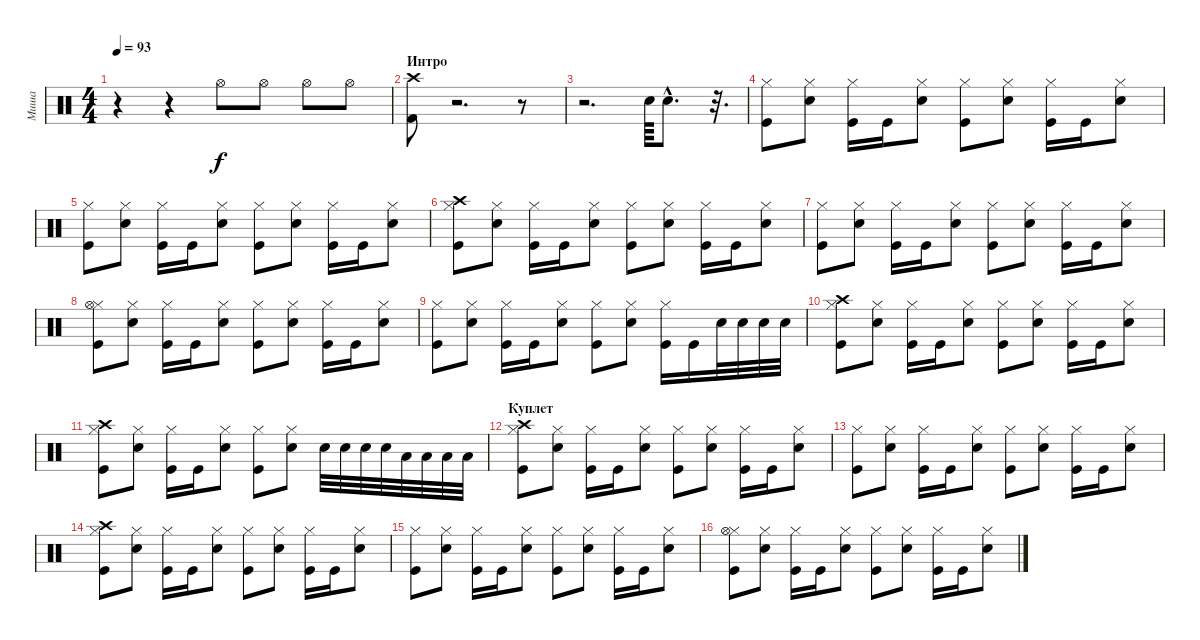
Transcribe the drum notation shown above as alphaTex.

\track ("Миша" "Миша") {instrument percussion}
\staff {score}
\articulation defaults
\ts (4 4)
\tempo 93
\clef neutral
\ks c
r.4{dy f} r.4 "Hi-Hat (open)".8 "Hi-Hat (open)".8 "Hi-Hat (open)".8 "Hi-Hat (open)".8 |
\section ("" "Интро")
("Kick (hit) 2" "Crash high (hit)").8 r.2{d} r.8 |
r.2{d} "Electric Snare (hit)".64 "Electric Snare (hit)"{hac}.8{d} r.32{d} |
("Kick (hit)" "Hi-Hat (closed)").8 ("Electric Snare (hit)" "Hi-Hat (closed)").8 ("Kick (hit)" "Hi-Hat (closed)").16 "Kick (hit)".16 ("Electric Snare (hit)" "Hi-Hat (closed)").8 ("Kick (hit)" "Hi-Hat (closed)").8 ("Electric Snare (hit)" "Hi-Hat (closed)").8 ("Kick (hit)" "Hi-Hat (closed)").16 "Kick (hit)".16 ("Electric Snare (hit)" "Hi-Hat (closed)").8 |
("Kick (hit)" "Hi-Hat (closed)").8 ("Electric Snare (hit)" "Hi-Hat (closed)").8 ("Kick (hit)" "Hi-Hat (closed)").16 "Kick (hit)".16 ("Electric Snare (hit)" "Hi-Hat (closed)").8 ("Kick (hit)" "Hi-Hat (closed)").8 ("Electric Snare (hit)" "Hi-Hat (closed)").8 ("Kick (hit)" "Hi-Hat (closed)").16 "Kick (hit)".16 ("Electric Snare (hit)" "Hi-Hat (closed)").8 |
("Kick (hit)" "Hi-Hat (closed)" "Crash high (hit)").8 ("Electric Snare (hit)" "Hi-Hat (closed)").8 ("Kick (hit)" "Hi-Hat (closed)").16 "Kick (hit)".16 ("Electric Snare (hit)" "Hi-Hat (closed)").8 ("Kick (hit)" "Hi-Hat (closed)").8 ("Electric Snare (hit)" "Hi-Hat (closed)").8 ("Kick (hit)" "Hi-Hat (closed)").16 "Kick (hit)".16 ("Electric Snare (hit)" "Hi-Hat (closed)").8 |
("Kick (hit)" "Hi-Hat (closed)").8 ("Electric Snare (hit)" "Hi-Hat (closed)").8 ("Kick (hit)" "Hi-Hat (closed)").16 "Kick (hit)".16 ("Electric Snare (hit)" "Hi-Hat (closed)").8 ("Kick (hit)" "Hi-Hat (closed)").8 ("Electric Snare (hit)" "Hi-Hat (closed)").8 ("Kick (hit)" "Hi-Hat (closed)").16 "Kick (hit)".16 ("Electric Snare (hit)" "Hi-Hat (closed)").8 |
("Kick (hit)" "Hi-Hat (closed)" "Hi-Hat (open)").8 ("Electric Snare (hit)" "Hi-Hat (closed)").8 ("Kick (hit)" "Hi-Hat (closed)").16 "Kick (hit)".16 ("Electric Snare (hit)" "Hi-Hat (closed)").8 ("Kick (hit)" "Hi-Hat (closed)").8 ("Electric Snare (hit)" "Hi-Hat (closed)").8 ("Kick (hit)" "Hi-Hat (closed)").16 "Kick (hit)".16 ("Electric Snare (hit)" "Hi-Hat (closed)").8 |
("Kick (hit)" "Hi-Hat (closed)").8 ("Electric Snare (hit)" "Hi-Hat (closed)").8 ("Kick (hit)" "Hi-Hat (closed)").16 "Kick (hit)".16 ("Electric Snare (hit)" "Hi-Hat (closed)").8 ("Kick (hit)" "Hi-Hat (closed)").8 ("Electric Snare (hit)" "Hi-Hat (closed)").8 ("Kick (hit)" "Hi-Hat (closed)").16 "Kick (hit)".16 "Electric Snare (hit)".32 "Electric Snare (hit)".32 "Electric Snare (hit)".32 "Electric Snare (hit)".32 |
("Kick (hit)" "Hi-Hat (closed)" "Crash high (hit)").8 ("Electric Snare (hit)" "Hi-Hat (closed)").8 ("Kick (hit)" "Hi-Hat (closed)").16 "Kick (hit)".16 ("Electric Snare (hit)" "Hi-Hat (closed)").8 ("Kick (hit)" "Hi-Hat (closed)").8 ("Electric Snare (hit)" "Hi-Hat (closed)").8 ("Kick (hit)" "Hi-Hat (closed)").16 "Kick (hit)".16 ("Electric Snare (hit)" "Hi-Hat (closed)").8 |
("Kick (hit)" "Hi-Hat (closed)" "Crash high (hit)").8 ("Electric Snare (hit)" "Hi-Hat (closed)").8 ("Kick (hit)" "Hi-Hat (closed)").16 "Kick (hit)".16 ("Electric Snare (hit)" "Hi-Hat (closed)").8 ("Kick (hit)" "Hi-Hat (closed)").8 ("Electric Snare (hit)" "Hi-Hat (closed)").8 "Electric Snare (hit)".32 "Electric Snare (hit)".32 "Electric Snare (hit)".32 "Electric Snare (hit)".32 "Low Tom (hit)".32 "Low Tom (hit)".32 "Low Tom (hit)".32 "Low Tom (hit)".32 |
\section ("" "Куплет")
("Kick (hit)" "Hi-Hat (closed)" "Crash high (hit)").8 ("Electric Snare (hit)" "Hi-Hat (closed)").8 ("Kick (hit)" "Hi-Hat (closed)").16 "Kick (hit)".16 ("Electric Snare (hit)" "Hi-Hat (closed)").8 ("Kick (hit)" "Hi-Hat (closed)").8 ("Electric Snare (hit)" "Hi-Hat (closed)").8 ("Kick (hit)" "Hi-Hat (closed)").16 "Kick (hit)".16 ("Electric Snare (hit)" "Hi-Hat (closed)").8 |
("Kick (hit)" "Hi-Hat (closed)").8 ("Electric Snare (hit)" "Hi-Hat (closed)").8 ("Kick (hit)" "Hi-Hat (closed)").16 "Kick (hit)".16 ("Electric Snare (hit)" "Hi-Hat (closed)").8 ("Kick (hit)" "Hi-Hat (closed)").8 ("Electric Snare (hit)" "Hi-Hat (closed)").8 ("Kick (hit)" "Hi-Hat (closed)").16 "Kick (hit)".16 ("Electric Snare (hit)" "Hi-Hat (closed)").8 |
("Kick (hit)" "Hi-Hat (closed)" "Crash high (hit)").8 ("Electric Snare (hit)" "Hi-Hat (closed)").8 ("Kick (hit)" "Hi-Hat (closed)").16 "Kick (hit)".16 ("Electric Snare (hit)" "Hi-Hat (closed)").8 ("Kick (hit)" "Hi-Hat (closed)").8 ("Electric Snare (hit)" "Hi-Hat (closed)").8 ("Kick (hit)" "Hi-Hat (closed)").16 "Kick (hit)".16 ("Electric Snare (hit)" "Hi-Hat (closed)").8 |
("Kick (hit)" "Hi-Hat (closed)").8 ("Electric Snare (hit)" "Hi-Hat (closed)").8 ("Kick (hit)" "Hi-Hat (closed)").16 "Kick (hit)".16 ("Electric Snare (hit)" "Hi-Hat (closed)").8 ("Kick (hit)" "Hi-Hat (closed)").8 ("Electric Snare (hit)" "Hi-Hat (closed)").8 ("Kick (hit)" "Hi-Hat (closed)").16 "Kick (hit)".16 ("Electric Snare (hit)" "Hi-Hat (closed)").8 |
("Kick (hit)" "Hi-Hat (closed)" "Hi-Hat (open)").8 ("Electric Snare (hit)" "Hi-Hat (closed)").8 ("Kick (hit)" "Hi-Hat (closed)").16 "Kick (hit)".16 ("Electric Snare (hit)" "Hi-Hat (closed)").8 ("Kick (hit)" "Hi-Hat (closed)").8 ("Electric Snare (hit)" "Hi-Hat (closed)").8 ("Kick (hit)" "Hi-Hat (closed)").16 "Kick (hit)".16 ("Electric Snare (hit)" "Hi-Hat (closed)").8
